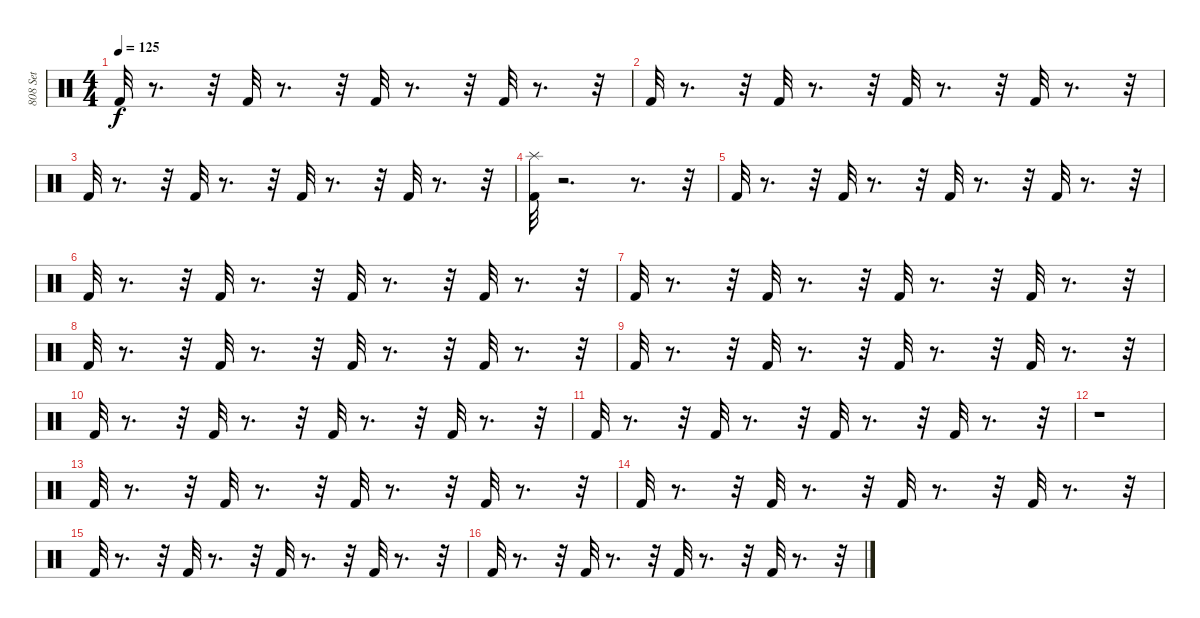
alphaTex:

\track ("808 Set" "808 Set") {instrument percussion}
\staff {score}
\articulation defaults
\ts (4 4)
\tempo 125
\clef neutral
\ks c "Kick (hit) 2".32{dy f}
r.8{d} r.32 "Kick (hit) 2".32 r.8{d} r.32 "Kick (hit) 2".32 r.8{d} r.32 "Kick (hit) 2".32 r.8{d} r.32 |
"Kick (hit) 2".32 r.8{d} r.32 "Kick (hit) 2".32 r.8{d} r.32 "Kick (hit) 2".32 r.8{d} r.32 "Kick (hit) 2".32 r.8{d} r.32 |
"Kick (hit) 2".32 r.8{d} r.32 "Kick (hit) 2".32 r.8{d} r.32 "Kick (hit) 2".32 r.8{d} r.32 "Kick (hit) 2".32 r.8{d} r.32 |
("Kick (hit) 2" "Splash (hit)").32 r.2{d} r.8{d} r.32 |
"Kick (hit) 2".32 r.8{d} r.32 "Kick (hit) 2".32 r.8{d} r.32 "Kick (hit) 2".32 r.8{d} r.32 "Kick (hit) 2".32 r.8{d} r.32 |
"Kick (hit) 2".32 r.8{d} r.32 "Kick (hit) 2".32 r.8{d} r.32 "Kick (hit) 2".32 r.8{d} r.32 "Kick (hit) 2".32 r.8{d} r.32 |
"Kick (hit) 2".32 r.8{d} r.32 "Kick (hit) 2".32 r.8{d} r.32 "Kick (hit) 2".32 r.8{d} r.32 "Kick (hit) 2".32 r.8{d} r.32 |
"Kick (hit) 2".32 r.8{d} r.32 "Kick (hit) 2".32 r.8{d} r.32 "Kick (hit) 2".32 r.8{d} r.32 "Kick (hit) 2".32 r.8{d} r.32 |
"Kick (hit) 2".32 r.8{d} r.32 "Kick (hit) 2".32 r.8{d} r.32 "Kick (hit) 2".32 r.8{d} r.32 "Kick (hit) 2".32 r.8{d} r.32 |
"Kick (hit) 2".32 r.8{d} r.32 "Kick (hit) 2".32 r.8{d} r.32 "Kick (hit) 2".32 r.8{d} r.32 "Kick (hit) 2".32 r.8{d} r.32 |
"Kick (hit) 2".32 r.8{d} r.32 "Kick (hit) 2".32 r.8{d} r.32 "Kick (hit) 2".32 r.8{d} r.32 "Kick (hit) 2".32 r.8{d} r.32 |
r.1 |
"Kick (hit) 2".32 r.8{d} r.32 "Kick (hit) 2".32 r.8{d} r.32 "Kick (hit) 2".32 r.8{d} r.32 "Kick (hit) 2".32 r.8{d} r.32 |
"Kick (hit) 2".32 r.8{d} r.32 "Kick (hit) 2".32 r.8{d} r.32 "Kick (hit) 2".32 r.8{d} r.32 "Kick (hit) 2".32 r.8{d} r.32 |
"Kick (hit) 2".32 r.8{d} r.32 "Kick (hit) 2".32 r.8{d} r.32 "Kick (hit) 2".32 r.8{d} r.32 "Kick (hit) 2".32 r.8{d} r.32 |
"Kick (hit) 2".32 r.8{d} r.32 "Kick (hit) 2".32 r.8{d} r.32 "Kick (hit) 2".32 r.8{d} r.32 "Kick (hit) 2".32 r.8{d} r.32
